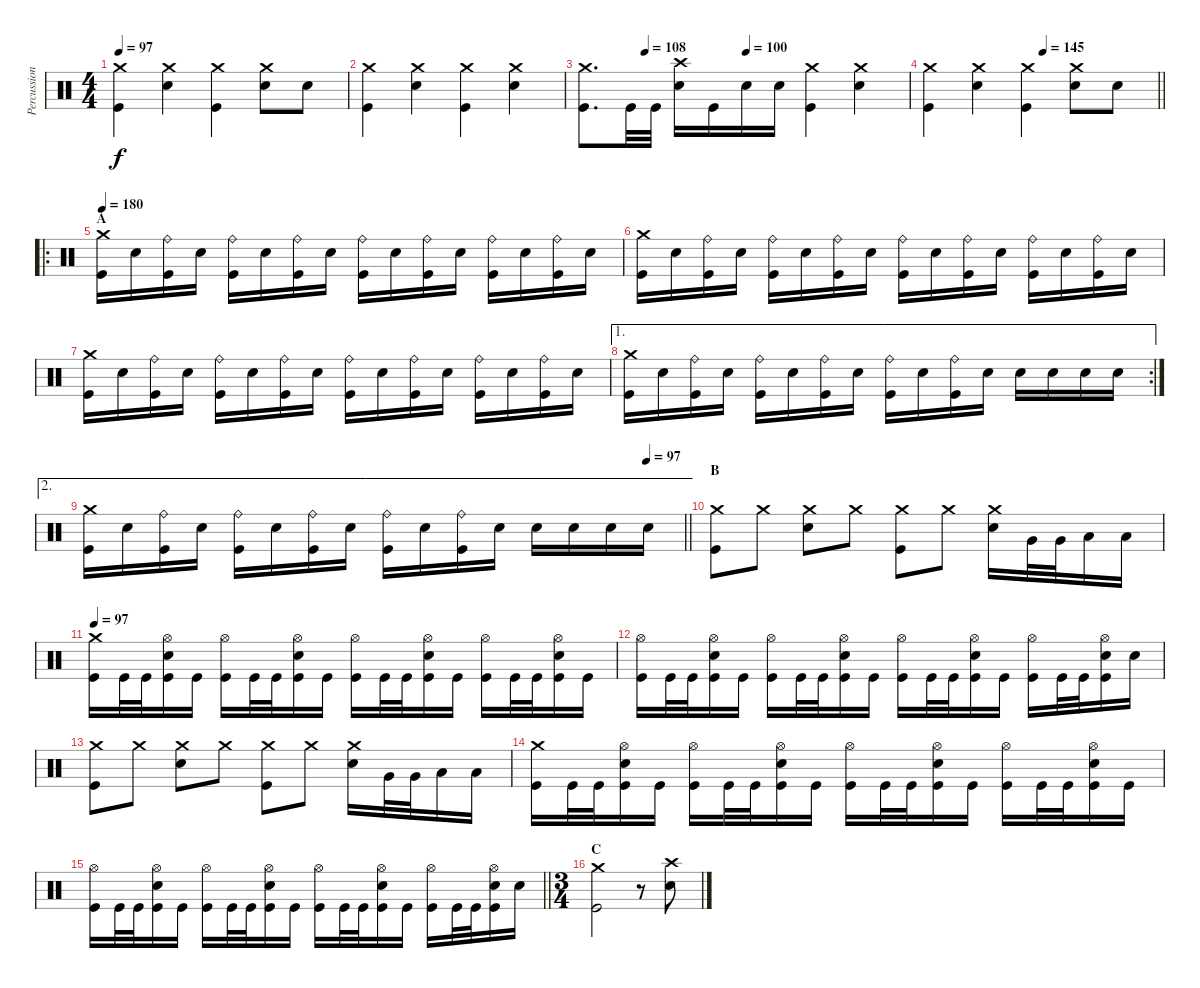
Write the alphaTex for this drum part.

\track ("Percussion" "Percussion") {instrument percussion}
\staff {score}
\articulation defaults
\ts (4 4)
\tempo 97
\clef neutral
\ks c
("Kick (hit)" "Crash medium (hit)").4{dy f} ("Snare (hit) 2" "Crash medium (hit)").4 ("Kick (hit)" "Crash medium (hit)").4 ("Snare (hit) 2" "Crash medium (hit)").8 "Snare (hit) 2".8 |
("Kick (hit)" "Crash medium (hit)").4 ("Snare (hit) 2" "Crash medium (hit)").4 ("Kick (hit)" "Crash medium (hit)").4 ("Snare (hit) 2" "Crash medium (hit)").4 |
\tempo (108 0.1875)
\tempo (100 0.5)
("Kick (hit)" "Crash medium (hit)").8{d} "Kick (hit)".32 "Kick (hit)".32 ("Snare (hit) 2" "Crash high (hit)").16 "Kick (hit)".16 "Snare (hit) 2".16 "Snare (hit) 2".16 ("Kick (hit)" "Crash medium (hit)").4 ("Snare (hit) 2" "Crash medium (hit)").4 |
\tempo (145 0.5)
\barLineRight lightlight
("Kick (hit)" "Crash medium (hit)").4 ("Snare (hit) 2" "Crash medium (hit)").4 ("Kick (hit)" "Crash medium (hit)").4 ("Snare (hit) 2" "Crash medium (hit)").8 "Snare (hit) 2".8 |
\ro
\section ("" "A")
\tempo 180
("Kick (hit)" "Crash medium (hit)").16 "Snare (hit) 2".16 ("Kick (hit)" "Ride (bell)").16 "Snare (hit) 2".16 ("Kick (hit)" "Ride (bell)").16 "Snare (hit) 2".16 ("Kick (hit)" "Ride (bell)").16 "Snare (hit) 2".16 ("Kick (hit)" "Ride (bell)").16 "Snare (hit) 2".16 ("Kick (hit)" "Ride (bell)").16 "Snare (hit) 2".16 ("Kick (hit)" "Ride (bell)").16 "Snare (hit) 2".16 ("Kick (hit)" "Ride (bell)").16 "Snare (hit) 2".16 |
("Kick (hit)" "Crash medium (hit)").16 "Snare (hit) 2".16 ("Kick (hit)" "Ride (bell)").16 "Snare (hit) 2".16 ("Kick (hit)" "Ride (bell)").16 "Snare (hit) 2".16 ("Kick (hit)" "Ride (bell)").16 "Snare (hit) 2".16 ("Kick (hit)" "Ride (bell)").16 "Snare (hit) 2".16 ("Kick (hit)" "Ride (bell)").16 "Snare (hit) 2".16 ("Kick (hit)" "Ride (bell)").16 "Snare (hit) 2".16 ("Kick (hit)" "Ride (bell)").16 "Snare (hit) 2".16 |
("Kick (hit)" "Crash medium (hit)").16 "Snare (hit) 2".16 ("Kick (hit)" "Ride (bell)").16 "Snare (hit) 2".16 ("Kick (hit)" "Ride (bell)").16 "Snare (hit) 2".16 ("Kick (hit)" "Ride (bell)").16 "Snare (hit) 2".16 ("Kick (hit)" "Ride (bell)").16 "Snare (hit) 2".16 ("Kick (hit)" "Ride (bell)").16 "Snare (hit) 2".16 ("Kick (hit)" "Ride (bell)").16 "Snare (hit) 2".16 ("Kick (hit)" "Ride (bell)").16 "Snare (hit) 2".16 |
\ae 1
\rc 2
("Kick (hit)" "Crash medium (hit)").16 "Snare (hit) 2".16 ("Kick (hit)" "Ride (bell)").16 "Snare (hit) 2".16 ("Kick (hit)" "Ride (bell)").16 "Snare (hit) 2".16 ("Kick (hit)" "Ride (bell)").16 "Snare (hit) 2".16 ("Kick (hit)" "Ride (bell)").16 "Snare (hit) 2".16 ("Kick (hit)" "Ride (bell)").16 "Snare (hit) 2".16 "Snare (hit) 2".16 "Snare (hit) 2".16 "Snare (hit) 2".16 "Snare (hit) 2".16 |
\ae 2
\tempo (97 0.9375)
\barLineRight lightlight
("Kick (hit)" "Crash medium (hit)").16 "Snare (hit) 2".16 ("Kick (hit)" "Ride (bell)").16 "Snare (hit) 2".16 ("Kick (hit)" "Ride (bell)").16 "Snare (hit) 2".16 ("Kick (hit)" "Ride (bell)").16 "Snare (hit) 2".16 ("Kick (hit)" "Ride (bell)").16 "Snare (hit) 2".16 ("Kick (hit)" "Ride (bell)").16 "Snare (hit) 2".16 "Snare (hit) 2".16 "Snare (hit) 2".16 "Snare (hit) 2".16 "Snare (hit) 2".16 |
\section ("" "B")
("Kick (hit)" "Crash medium (hit)").8 "Crash medium (hit)".8 ("Snare (hit) 2" "Crash medium (hit)").8 "Crash medium (hit)".8 ("Kick (hit)" "Crash medium (hit)").8 "Crash medium (hit)".8 ("Snare (hit) 2" "Crash medium (hit)").16 "Very Low Tom (hit)".32 "Very Low Tom (hit)".32 "Low Floor Tom (hit)".16 "Low Floor Tom (hit)".16 |
\tempo 97
("Kick (hit)" "Crash medium (hit)").16 "Kick (hit)".32 "Kick (hit)".32 ("Kick (hit)" "Snare (hit) 2" "Hi-Hat (open)").16 "Kick (hit)".16 ("Kick (hit)" "Hi-Hat (open)").16 "Kick (hit)".32 "Kick (hit)".32 ("Kick (hit)" "Snare (hit) 2" "Hi-Hat (open)").16 "Kick (hit)".16 ("Kick (hit)" "Hi-Hat (open)").16 "Kick (hit)".32 "Kick (hit)".32 ("Kick (hit)" "Snare (hit) 2" "Hi-Hat (open)").16 "Kick (hit)".16 ("Kick (hit)" "Hi-Hat (open)").16 "Kick (hit)".32 "Kick (hit)".32 ("Kick (hit)" "Snare (hit) 2" "Hi-Hat (open)").16 "Kick (hit)".16 |
("Kick (hit)" "Hi-Hat (open)").16 "Kick (hit)".32 "Kick (hit)".32 ("Kick (hit)" "Snare (hit) 2" "Hi-Hat (open)").16 "Kick (hit)".16 ("Kick (hit)" "Hi-Hat (open)").16 "Kick (hit)".32 "Kick (hit)".32 ("Kick (hit)" "Snare (hit) 2" "Hi-Hat (open)").16 "Kick (hit)".16 ("Kick (hit)" "Hi-Hat (open)").16 "Kick (hit)".32 "Kick (hit)".32 ("Kick (hit)" "Snare (hit) 2" "Hi-Hat (open)").16 "Kick (hit)".16 ("Kick (hit)" "Hi-Hat (open)").16 "Kick (hit)".32 "Kick (hit)".32 ("Kick (hit)" "Snare (hit) 2" "Hi-Hat (open)").16 "Snare (hit) 2".16 |
("Kick (hit)" "Crash medium (hit)").8 "Crash medium (hit)".8 ("Snare (hit) 2" "Crash medium (hit)").8 "Crash medium (hit)".8 ("Kick (hit)" "Crash medium (hit)").8 "Crash medium (hit)".8 ("Snare (hit) 2" "Crash medium (hit)").16 "Very Low Tom (hit)".32 "Very Low Tom (hit)".32 "Low Floor Tom (hit)".16 "Low Floor Tom (hit)".16 |
("Kick (hit)" "Crash medium (hit)").16 "Kick (hit)".32 "Kick (hit)".32 ("Kick (hit)" "Snare (hit) 2" "Hi-Hat (open)").16 "Kick (hit)".16 ("Kick (hit)" "Hi-Hat (open)").16 "Kick (hit)".32 "Kick (hit)".32 ("Kick (hit)" "Snare (hit) 2" "Hi-Hat (open)").16 "Kick (hit)".16 ("Kick (hit)" "Hi-Hat (open)").16 "Kick (hit)".32 "Kick (hit)".32 ("Kick (hit)" "Snare (hit) 2" "Hi-Hat (open)").16 "Kick (hit)".16 ("Kick (hit)" "Hi-Hat (open)").16 "Kick (hit)".32 "Kick (hit)".32 ("Kick (hit)" "Snare (hit) 2" "Hi-Hat (open)").16 "Kick (hit)".16 |
\barLineRight lightlight
("Kick (hit)" "Hi-Hat (open)").16 "Kick (hit)".32 "Kick (hit)".32 ("Kick (hit)" "Snare (hit) 2" "Hi-Hat (open)").16 "Kick (hit)".16 ("Kick (hit)" "Hi-Hat (open)").16 "Kick (hit)".32 "Kick (hit)".32 ("Kick (hit)" "Snare (hit) 2" "Hi-Hat (open)").16 "Kick (hit)".16 ("Kick (hit)" "Hi-Hat (open)").16 "Kick (hit)".32 "Kick (hit)".32 ("Kick (hit)" "Snare (hit) 2" "Hi-Hat (open)").16 "Kick (hit)".16 ("Kick (hit)" "Hi-Hat (open)").16 "Kick (hit)".32 "Kick (hit)".32 ("Kick (hit)" "Snare (hit) 2" "Hi-Hat (open)").16 "Snare (hit) 2".16 |
\ts (3 4)
\section ("" "C")
("Kick (hit)" "Crash medium (hit)").2 r.8 ("Snare (hit) 2" "Crash high (hit)").8
